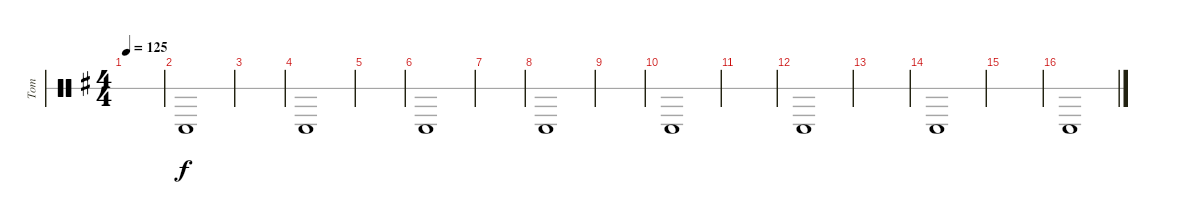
\defaultSystemsLayout 4
\bracketExtendMode groupsimilarinstruments
\otherSystemsTrackNameOrientation horizontal
\track ("Melodic Tom" "Tom") {instrument percussion}
\staff {score 1}
\articulation defaults
\ts (4 4)
\tempo 125
\clef neutral
\scale
0.474178
\ks g
|
\scale
0.262911 "Timbale high (hit)"{acc forcenatural}.1{beam Down} |
|
"Timbale high (hit)"{acc forcenatural}.1{beam Down} |
|
\scale
0.262911 "Timbale high (hit)"{acc forcenatural}.1{beam Down} |
\scale
0.333333 |
\scale
0.333333 "Timbale high (hit)"{acc forcenatural}.1{beam Down} |
|
\scale
0.333333 "Timbale high (hit)"{acc forcenatural}.1{beam Down} |
\scale
0.333333 |
\scale
0.333333 "Timbale high (hit)"{acc forcenatural}.1{beam Down} |
\scale
0.333333 |
\scale
0.333333 "Timbale high (hit)"{acc forcenatural}.1{beam Down} |
\scale
0.333333 |
\scale
0.333333 "Timbale high (hit)"{acc forcenatural}.1{beam Down}
